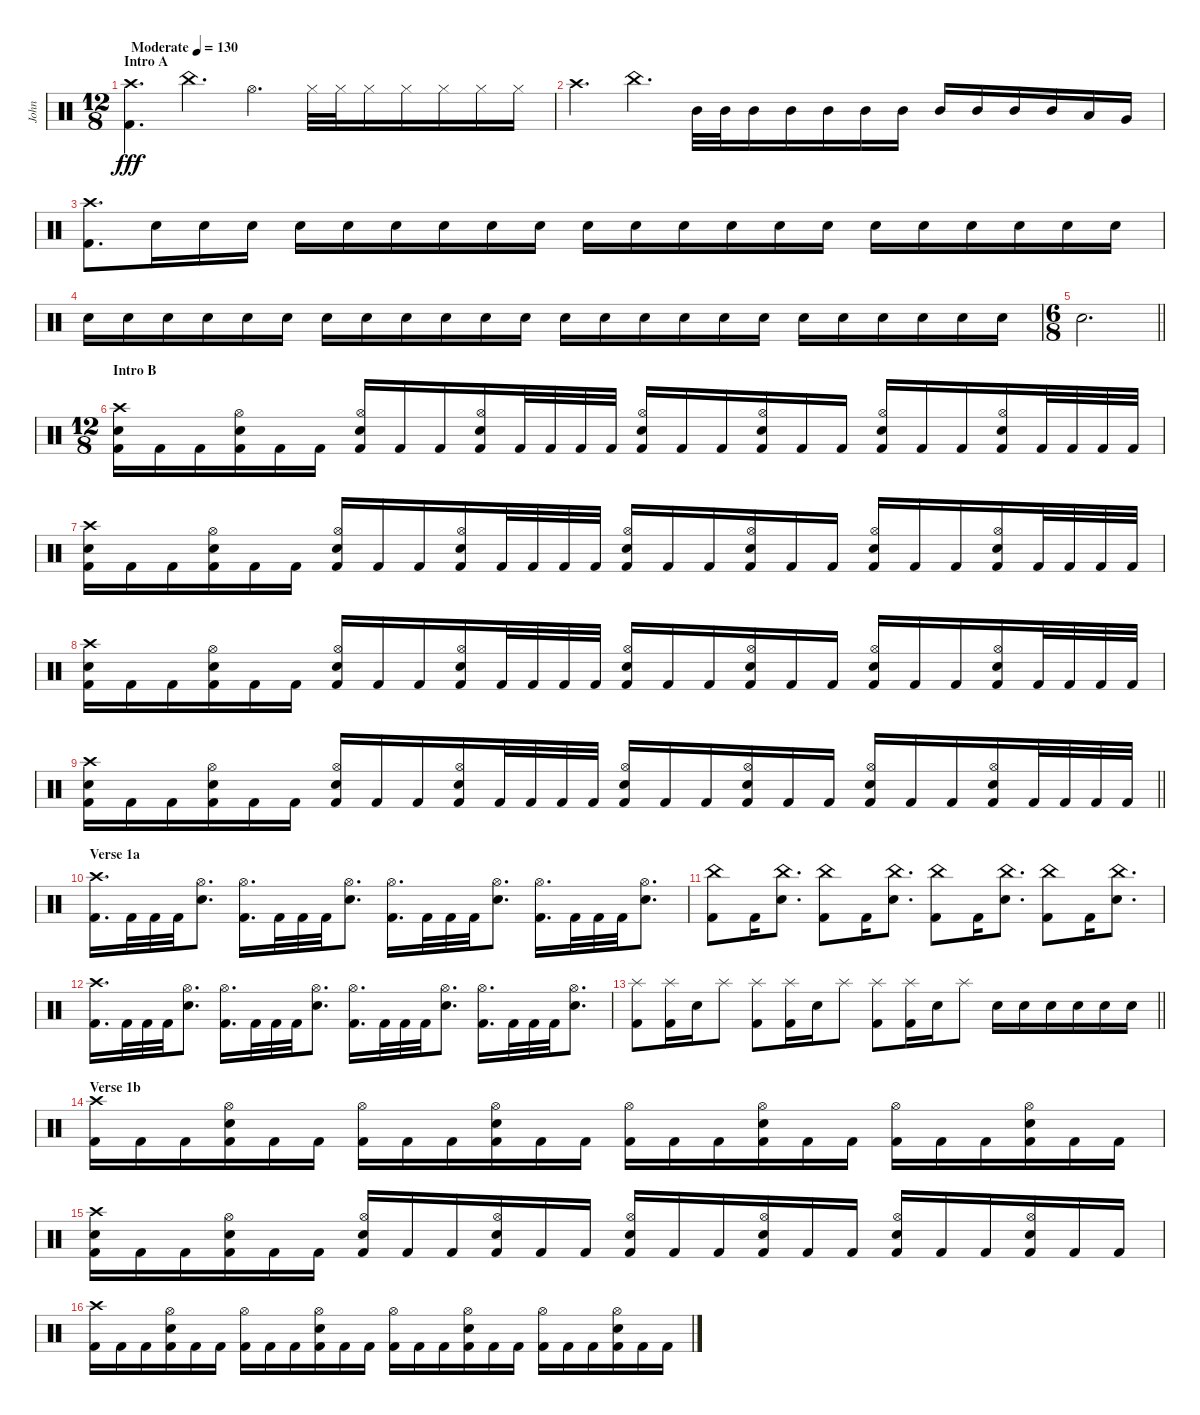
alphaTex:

\track ("John" "John") {instrument percussion}
\staff {score}
\articulation defaults
\ts (12 8)
\section ("" "Intro A")
\tempo (130 "Moderate")
\clef neutral
\ks c
("Crash high (hit)" "Kick (hit) 2").4{d dy fff} "China (hit)".4{d} "Hi-Hat (open)".4{d} "Hi-Hat (closed)".32 "Hi-Hat (closed)".32 "Hi-Hat (closed)".16 "Hi-Hat (closed)".16 "Hi-Hat (closed)".16 "Hi-Hat (closed)".16 "Hi-Hat (closed)".16 |
"Crash high (hit)".4{d} "China (hit)".4{d} "Mid Tom (hit)".32 "Mid Tom (hit)".32 "Mid Tom (hit)".16 "Mid Tom (hit)".16 "Mid Tom (hit)".16 "Mid Tom (hit)".16 "Mid Tom (hit)".16 "Mid Tom (hit)".16 "Mid Tom (hit)".16 "Mid Tom (hit)".16 "Mid Tom (hit)".16 "Low Tom (hit)".16 "Very Low Tom (hit)".16 |
("Crash high (hit)" "Kick (hit) 2").8{d} "Electric Snare (hit)".16 "Electric Snare (hit)".16 "Electric Snare (hit)".16 "Electric Snare (hit)".16 "Electric Snare (hit)".16 "Electric Snare (hit)".16 "Electric Snare (hit)".16 "Electric Snare (hit)".16 "Electric Snare (hit)".16 "Electric Snare (hit)".16 "Electric Snare (hit)".16 "Electric Snare (hit)".16 "Electric Snare (hit)".16 "Electric Snare (hit)".16 "Electric Snare (hit)".16 "Electric Snare (hit)".16 "Electric Snare (hit)".16 "Electric Snare (hit)".16 "Electric Snare (hit)".16 "Electric Snare (hit)".16 "Electric Snare (hit)".16 |
"Electric Snare (hit)".16 "Electric Snare (hit)".16 "Electric Snare (hit)".16 "Electric Snare (hit)".16 "Electric Snare (hit)".16 "Electric Snare (hit)".16 "Electric Snare (hit)".16 "Electric Snare (hit)".16 "Electric Snare (hit)".16 "Electric Snare (hit)".16 "Electric Snare (hit)".16 "Electric Snare (hit)".16 "Electric Snare (hit)".16 "Electric Snare (hit)".16 "Electric Snare (hit)".16 "Electric Snare (hit)".16 "Electric Snare (hit)".16 "Electric Snare (hit)".16 "Electric Snare (hit)".16 "Electric Snare (hit)".16 "Electric Snare (hit)".16 "Electric Snare (hit)".16 "Electric Snare (hit)".16 "Electric Snare (hit)".16 |
\ts (6 8)
\barLineRight lightlight "Electric Snare (hit)".2{d}
|
\ts (12 8)
\section ("" "Intro B")
("Crash high (hit)" "Electric Snare (hit)" "Kick (hit) 2").16 "Kick (hit) 2".16 "Kick (hit) 2".16 ("Hi-Hat (open)" "Electric Snare (hit)" "Kick (hit) 2").16 "Kick (hit) 2".16 "Kick (hit) 2".16 ("Hi-Hat (open)" "Electric Snare (hit)" "Kick (hit) 2").16 "Kick (hit) 2".16 "Kick (hit) 2".16 ("Hi-Hat (open)" "Electric Snare (hit)" "Kick (hit) 2").16 "Kick (hit) 2".32 "Kick (hit) 2".32 "Kick (hit) 2".32 "Kick (hit) 2".32 ("Hi-Hat (open)" "Electric Snare (hit)" "Kick (hit) 2").16 "Kick (hit) 2".16 "Kick (hit) 2".16 ("Hi-Hat (open)" "Electric Snare (hit)" "Kick (hit) 2").16 "Kick (hit) 2".16 "Kick (hit) 2".16 ("Hi-Hat (open)" "Electric Snare (hit)" "Kick (hit) 2").16 "Kick (hit) 2".16 "Kick (hit) 2".16 ("Hi-Hat (open)" "Electric Snare (hit)" "Kick (hit) 2").16 "Kick (hit) 2".32 "Kick (hit) 2".32 "Kick (hit) 2".32 "Kick (hit) 2".32 |
("Crash high (hit)" "Electric Snare (hit)" "Kick (hit) 2").16 "Kick (hit) 2".16 "Kick (hit) 2".16 ("Hi-Hat (open)" "Electric Snare (hit)" "Kick (hit) 2").16 "Kick (hit) 2".16 "Kick (hit) 2".16 ("Hi-Hat (open)" "Electric Snare (hit)" "Kick (hit) 2").16 "Kick (hit) 2".16 "Kick (hit) 2".16 ("Hi-Hat (open)" "Electric Snare (hit)" "Kick (hit) 2").16 "Kick (hit) 2".32 "Kick (hit) 2".32 "Kick (hit) 2".32 "Kick (hit) 2".32 ("Hi-Hat (open)" "Electric Snare (hit)" "Kick (hit) 2").16 "Kick (hit) 2".16 "Kick (hit) 2".16 ("Hi-Hat (open)" "Electric Snare (hit)" "Kick (hit) 2").16 "Kick (hit) 2".16 "Kick (hit) 2".16 ("Hi-Hat (open)" "Electric Snare (hit)" "Kick (hit) 2").16 "Kick (hit) 2".16 "Kick (hit) 2".16 ("Hi-Hat (open)" "Electric Snare (hit)" "Kick (hit) 2").16 "Kick (hit) 2".32 "Kick (hit) 2".32 "Kick (hit) 2".32 "Kick (hit) 2".32 |
("Crash high (hit)" "Electric Snare (hit)" "Kick (hit) 2").16 "Kick (hit) 2".16 "Kick (hit) 2".16 ("Hi-Hat (open)" "Electric Snare (hit)" "Kick (hit) 2").16 "Kick (hit) 2".16 "Kick (hit) 2".16 ("Hi-Hat (open)" "Electric Snare (hit)" "Kick (hit) 2").16 "Kick (hit) 2".16 "Kick (hit) 2".16 ("Hi-Hat (open)" "Electric Snare (hit)" "Kick (hit) 2").16 "Kick (hit) 2".32 "Kick (hit) 2".32 "Kick (hit) 2".32 "Kick (hit) 2".32 ("Hi-Hat (open)" "Electric Snare (hit)" "Kick (hit) 2").16 "Kick (hit) 2".16 "Kick (hit) 2".16 ("Hi-Hat (open)" "Electric Snare (hit)" "Kick (hit) 2").16 "Kick (hit) 2".16 "Kick (hit) 2".16 ("Hi-Hat (open)" "Electric Snare (hit)" "Kick (hit) 2").16 "Kick (hit) 2".16 "Kick (hit) 2".16 ("Hi-Hat (open)" "Electric Snare (hit)" "Kick (hit) 2").16 "Kick (hit) 2".32 "Kick (hit) 2".32 "Kick (hit) 2".32 "Kick (hit) 2".32 |
\barLineRight lightlight
("Crash high (hit)" "Electric Snare (hit)" "Kick (hit) 2").16 "Kick (hit) 2".16 "Kick (hit) 2".16 ("Hi-Hat (open)" "Electric Snare (hit)" "Kick (hit) 2").16 "Kick (hit) 2".16 "Kick (hit) 2".16 ("Hi-Hat (open)" "Electric Snare (hit)" "Kick (hit) 2").16 "Kick (hit) 2".16 "Kick (hit) 2".16 ("Hi-Hat (open)" "Electric Snare (hit)" "Kick (hit) 2").16 "Kick (hit) 2".32 "Kick (hit) 2".32 "Kick (hit) 2".32 "Kick (hit) 2".32 ("Hi-Hat (open)" "Electric Snare (hit)" "Kick (hit) 2").16 "Kick (hit) 2".16 "Kick (hit) 2".16 ("Hi-Hat (open)" "Electric Snare (hit)" "Kick (hit) 2").16 "Kick (hit) 2".16 "Kick (hit) 2".16 ("Hi-Hat (open)" "Electric Snare (hit)" "Kick (hit) 2").16 "Kick (hit) 2".16 "Kick (hit) 2".16 ("Hi-Hat (open)" "Electric Snare (hit)" "Kick (hit) 2").16 "Kick (hit) 2".32 "Kick (hit) 2".32 "Kick (hit) 2".32 "Kick (hit) 2".32 |
\section ("" "Verse 1a")
("Crash high (hit)" "Kick (hit) 2").16{d} "Kick (hit) 2".32 "Kick (hit) 2".32 "Kick (hit) 2".32 ("Hi-Hat (open)" "Electric Snare (hit)").8{d} ("Hi-Hat (open)" "Kick (hit) 2").16{d} "Kick (hit) 2".32 "Kick (hit) 2".32 "Kick (hit) 2".32 ("Hi-Hat (open)" "Electric Snare (hit)").8{d} ("Hi-Hat (open)" "Kick (hit) 2").16{d} "Kick (hit) 2".32 "Kick (hit) 2".32 "Kick (hit) 2".32 ("Hi-Hat (open)" "Electric Snare (hit)").8{d} ("Hi-Hat (open)" "Kick (hit) 2").16{d} "Kick (hit) 2".32 "Kick (hit) 2".32 "Kick (hit) 2".32 ("Hi-Hat (open)" "Electric Snare (hit)").8{d} |
("China (hit)" "Kick (hit) 2").8 "Kick (hit) 2".16 ("China (hit)" "Electric Snare (hit)").8{d} ("China (hit)" "Kick (hit) 2").8 "Kick (hit) 2".16 ("China (hit)" "Electric Snare (hit)").8{d} ("China (hit)" "Kick (hit) 2").8 "Kick (hit) 2".16 ("China (hit)" "Electric Snare (hit)").8{d} ("China (hit)" "Kick (hit) 2").8 "Kick (hit) 2".16 ("China (hit)" "Electric Snare (hit)").8{d} |
("Crash high (hit)" "Kick (hit) 2").16{d} "Kick (hit) 2".32 "Kick (hit) 2".32 "Kick (hit) 2".32 ("Hi-Hat (open)" "Electric Snare (hit)").8{d} ("Hi-Hat (open)" "Kick (hit) 2").16{d} "Kick (hit) 2".32 "Kick (hit) 2".32 "Kick (hit) 2".32 ("Hi-Hat (open)" "Electric Snare (hit)").8{d} ("Hi-Hat (open)" "Kick (hit) 2").16{d} "Kick (hit) 2".32 "Kick (hit) 2".32 "Kick (hit) 2".32 ("Hi-Hat (open)" "Electric Snare (hit)").8{d} ("Hi-Hat (open)" "Kick (hit) 2").16{d} "Kick (hit) 2".32 "Kick (hit) 2".32 "Kick (hit) 2".32 ("Hi-Hat (open)" "Electric Snare (hit)").8{d} |
\barLineRight lightlight
("Splash (hit)" "Kick (hit) 2").8 ("Splash (hit)" "Kick (hit) 2").16 "Electric Snare (hit)".16 "Splash (hit)".8 ("Splash (hit)" "Kick (hit) 2").8 ("Splash (hit)" "Kick (hit) 2").16 "Electric Snare (hit)".16 "Splash (hit)".8 ("Splash (hit)" "Kick (hit) 2").8 ("Splash (hit)" "Kick (hit) 2").16 "Electric Snare (hit)".16 "Splash (hit)".8 "Electric Snare (hit)".16 "Electric Snare (hit)".16 "Electric Snare (hit)".16 "Electric Snare (hit)".16 "Electric Snare (hit)".16 "Electric Snare (hit)".16 |
\section ("" "Verse 1b")
("Crash high (hit)" "Kick (hit) 2").16 "Kick (hit) 2".16 "Kick (hit) 2".16 ("Hi-Hat (open)" "Electric Snare (hit)" "Kick (hit) 2").16 "Kick (hit) 2".16 "Kick (hit) 2".16 ("Hi-Hat (open)" "Kick (hit) 2").16 "Kick (hit) 2".16 "Kick (hit) 2".16 ("Hi-Hat (open)" "Electric Snare (hit)" "Kick (hit) 2").16 "Kick (hit) 2".16 "Kick (hit) 2".16 ("Hi-Hat (open)" "Kick (hit) 2").16 "Kick (hit) 2".16 "Kick (hit) 2".16 ("Hi-Hat (open)" "Electric Snare (hit)" "Kick (hit) 2").16 "Kick (hit) 2".16 "Kick (hit) 2".16 ("Hi-Hat (open)" "Kick (hit) 2").16 "Kick (hit) 2".16 "Kick (hit) 2".16 ("Hi-Hat (open)" "Electric Snare (hit)" "Kick (hit) 2").16 "Kick (hit) 2".16 "Kick (hit) 2".16 |
("Crash high (hit)" "Electric Snare (hit)" "Kick (hit) 2").16 "Kick (hit) 2".16 "Kick (hit) 2".16 ("Hi-Hat (open)" "Electric Snare (hit)" "Kick (hit) 2").16 "Kick (hit) 2".16 "Kick (hit) 2".16 ("Hi-Hat (open)" "Electric Snare (hit)" "Kick (hit) 2").16 "Kick (hit) 2".16 "Kick (hit) 2".16 ("Hi-Hat (open)" "Electric Snare (hit)" "Kick (hit) 2").16 "Kick (hit) 2".16 "Kick (hit) 2".16 ("Hi-Hat (open)" "Electric Snare (hit)" "Kick (hit) 2").16 "Kick (hit) 2".16 "Kick (hit) 2".16 ("Hi-Hat (open)" "Electric Snare (hit)" "Kick (hit) 2").16 "Kick (hit) 2".16 "Kick (hit) 2".16 ("Hi-Hat (open)" "Electric Snare (hit)" "Kick (hit) 2").16 "Kick (hit) 2".16 "Kick (hit) 2".16 ("Hi-Hat (open)" "Electric Snare (hit)" "Kick (hit) 2").16 "Kick (hit) 2".16 "Kick (hit) 2".16 |
("Crash high (hit)" "Kick (hit) 2").16 "Kick (hit) 2".16 "Kick (hit) 2".16 ("Hi-Hat (open)" "Electric Snare (hit)" "Kick (hit) 2").16 "Kick (hit) 2".16 "Kick (hit) 2".16 ("Hi-Hat (open)" "Kick (hit) 2").16 "Kick (hit) 2".16 "Kick (hit) 2".16 ("Hi-Hat (open)" "Electric Snare (hit)" "Kick (hit) 2").16 "Kick (hit) 2".16 "Kick (hit) 2".16 ("Hi-Hat (open)" "Kick (hit) 2").16 "Kick (hit) 2".16 "Kick (hit) 2".16 ("Hi-Hat (open)" "Electric Snare (hit)" "Kick (hit) 2").16 "Kick (hit) 2".16 "Kick (hit) 2".16 ("Hi-Hat (open)" "Kick (hit) 2").16 "Kick (hit) 2".16 "Kick (hit) 2".16 ("Hi-Hat (open)" "Electric Snare (hit)" "Kick (hit) 2").16 "Kick (hit) 2".16 "Kick (hit) 2".16
